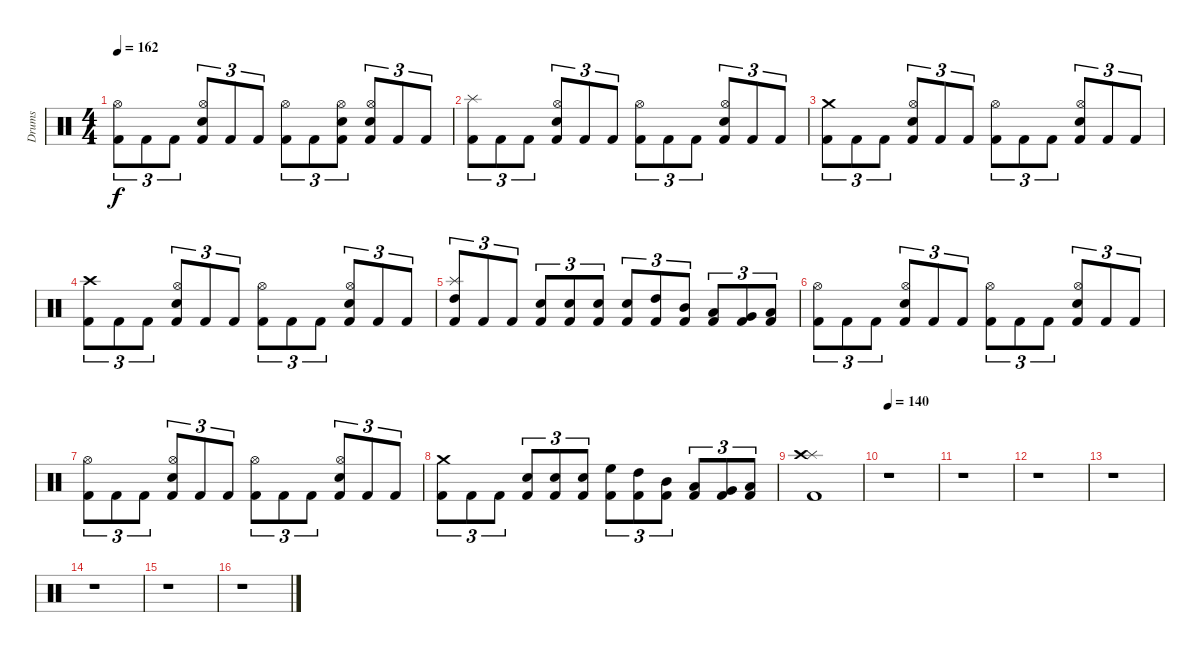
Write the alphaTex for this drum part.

\track ("Drums" "Drums") {instrument percussion}
\staff {score}
\articulation defaults
\ts (4 4)
\tempo 162
\clef neutral
\ks c
("Kick (hit) 2" "Hi-Hat (open)").8{tu (3 2) dy f} "Kick (hit) 2".8{tu (3 2)} "Kick (hit) 2".8{tu (3 2)} ("Kick (hit) 2" "Electric Snare (hit)" "Hi-Hat (open)").8{tu (3 2)} "Kick (hit) 2".8{tu (3 2)} "Kick (hit) 2".8{tu (3 2)} ("Kick (hit) 2" "Hi-Hat (open)").8{tu (3 2)} "Kick (hit) 2".8{tu (3 2)} ("Kick (hit) 2" "Electric Snare (hit)" "Hi-Hat (open)").8{tu (3 2)} ("Kick (hit) 2" "Electric Snare (hit)" "Hi-Hat (open)").8{tu (3 2)} "Kick (hit) 2".8{tu (3 2)} "Kick (hit) 2".8{tu (3 2)} |
("Kick (hit) 2" "Splash (hit)").8{tu (3 2)} "Kick (hit) 2".8{tu (3 2)} "Kick (hit) 2".8{tu (3 2)} ("Kick (hit) 2" "Electric Snare (hit)" "Hi-Hat (open)").8{tu (3 2)} "Kick (hit) 2".8{tu (3 2)} "Kick (hit) 2".8{tu (3 2)} ("Kick (hit) 2" "Hi-Hat (open)").8{tu (3 2)} "Kick (hit) 2".8{tu (3 2)} "Kick (hit) 2".8{tu (3 2)} ("Kick (hit) 2" "Electric Snare (hit)" "Hi-Hat (open)").8{tu (3 2)} "Kick (hit) 2".8{tu (3 2)} "Kick (hit) 2".8{tu (3 2)} |
("Kick (hit) 2" "Crash medium (hit)").8{tu (3 2)} "Kick (hit) 2".8{tu (3 2)} "Kick (hit) 2".8{tu (3 2)} ("Kick (hit) 2" "Electric Snare (hit)" "Hi-Hat (open)").8{tu (3 2)} "Kick (hit) 2".8{tu (3 2)} "Kick (hit) 2".8{tu (3 2)} ("Kick (hit) 2" "Hi-Hat (open)").8{tu (3 2)} "Kick (hit) 2".8{tu (3 2)} "Kick (hit) 2".8{tu (3 2)} ("Kick (hit) 2" "Electric Snare (hit)" "Hi-Hat (open)").8{tu (3 2)} "Kick (hit) 2".8{tu (3 2)} "Kick (hit) 2".8{tu (3 2)} |
("Kick (hit) 2" "Crash high (hit)").8{tu (3 2)} "Kick (hit) 2".8{tu (3 2)} "Kick (hit) 2".8{tu (3 2)} ("Kick (hit) 2" "Electric Snare (hit)" "Hi-Hat (open)").8{tu (3 2)} "Kick (hit) 2".8{tu (3 2)} "Kick (hit) 2".8{tu (3 2)} ("Kick (hit) 2" "Hi-Hat (open)").8{tu (3 2)} "Kick (hit) 2".8{tu (3 2)} "Kick (hit) 2".8{tu (3 2)} ("Kick (hit) 2" "Electric Snare (hit)" "Hi-Hat (open)").8{tu (3 2)} "Kick (hit) 2".8{tu (3 2)} "Kick (hit) 2".8{tu (3 2)} |
("Kick (hit) 2" "High Tom (hit)" "Splash (hit)").8{tu (3 2)} "Kick (hit) 2".8{tu (3 2)} "Kick (hit) 2".8{tu (3 2)} ("Kick (hit) 2" "Electric Snare (hit)").8{tu (3 2)} ("Kick (hit) 2" "Electric Snare (hit)").8{tu (3 2)} ("Kick (hit) 2" "Electric Snare (hit)").8{tu (3 2)} ("Kick (hit) 2" "Electric Snare (hit)").8{tu (3 2)} ("Kick (hit) 2" "High Tom (hit)").8{tu (3 2)} ("Kick (hit) 2" "Mid Tom (hit)").8{tu (3 2)} ("Kick (hit) 2" "Low Tom (hit)").8{tu (3 2)} ("Kick (hit) 2" "Very Low Tom (hit)").8{tu (3 2)} ("Kick (hit) 2" "Low Floor Tom (hit)").8{tu (3 2)} |
("Kick (hit) 2" "Hi-Hat (open)").8{tu (3 2)} "Kick (hit) 2".8{tu (3 2)} "Kick (hit) 2".8{tu (3 2)} ("Kick (hit) 2" "Electric Snare (hit)" "Hi-Hat (open)").8{tu (3 2)} "Kick (hit) 2".8{tu (3 2)} "Kick (hit) 2".8{tu (3 2)} ("Kick (hit) 2" "Hi-Hat (open)").8{tu (3 2)} "Kick (hit) 2".8{tu (3 2)} "Kick (hit) 2".8{tu (3 2)} ("Kick (hit) 2" "Electric Snare (hit)" "Hi-Hat (open)").8{tu (3 2)} "Kick (hit) 2".8{tu (3 2)} "Kick (hit) 2".8{tu (3 2)} |
("Kick (hit) 2" "Hi-Hat (open)").8{tu (3 2)} "Kick (hit) 2".8{tu (3 2)} "Kick (hit) 2".8{tu (3 2)} ("Kick (hit) 2" "Electric Snare (hit)" "Hi-Hat (open)").8{tu (3 2)} "Kick (hit) 2".8{tu (3 2)} "Kick (hit) 2".8{tu (3 2)} ("Kick (hit) 2" "Hi-Hat (open)").8{tu (3 2)} "Kick (hit) 2".8{tu (3 2)} "Kick (hit) 2".8{tu (3 2)} ("Kick (hit) 2" "Electric Snare (hit)" "Hi-Hat (open)").8{tu (3 2)} "Kick (hit) 2".8{tu (3 2)} "Kick (hit) 2".8{tu (3 2)} |
("Kick (hit) 2" "Crash medium (hit)").8{tu (3 2)} "Kick (hit) 2".8{tu (3 2)} "Kick (hit) 2".8{tu (3 2)} ("Kick (hit) 2" "Electric Snare (hit)").8{tu (3 2)} ("Kick (hit) 2" "Electric Snare (hit)").8{tu (3 2)} ("Kick (hit) 2" "Electric Snare (hit)").8{tu (3 2)} ("Kick (hit) 2" "High Floor Tom (hit)").8{tu (3 2)} ("Kick (hit) 2" "High Tom (hit)").8{tu (3 2)} ("Kick (hit) 2" "Mid Tom (hit)").8{tu (3 2)} ("Kick (hit) 2" "Low Tom (hit)").8{tu (3 2)} ("Kick (hit) 2" "Very Low Tom (hit)").8{tu (3 2)} ("Kick (hit) 2" "Low Floor Tom (hit)").8{tu (3 2)} |
\section ("" "")
("Kick (hit) 2" "Splash (hit)" "Crash high (hit)").1 |
\tempo 140
r.1 |
r.1 |
r.1 |
r.1 |
r.1 |
r.1 |
r.1
